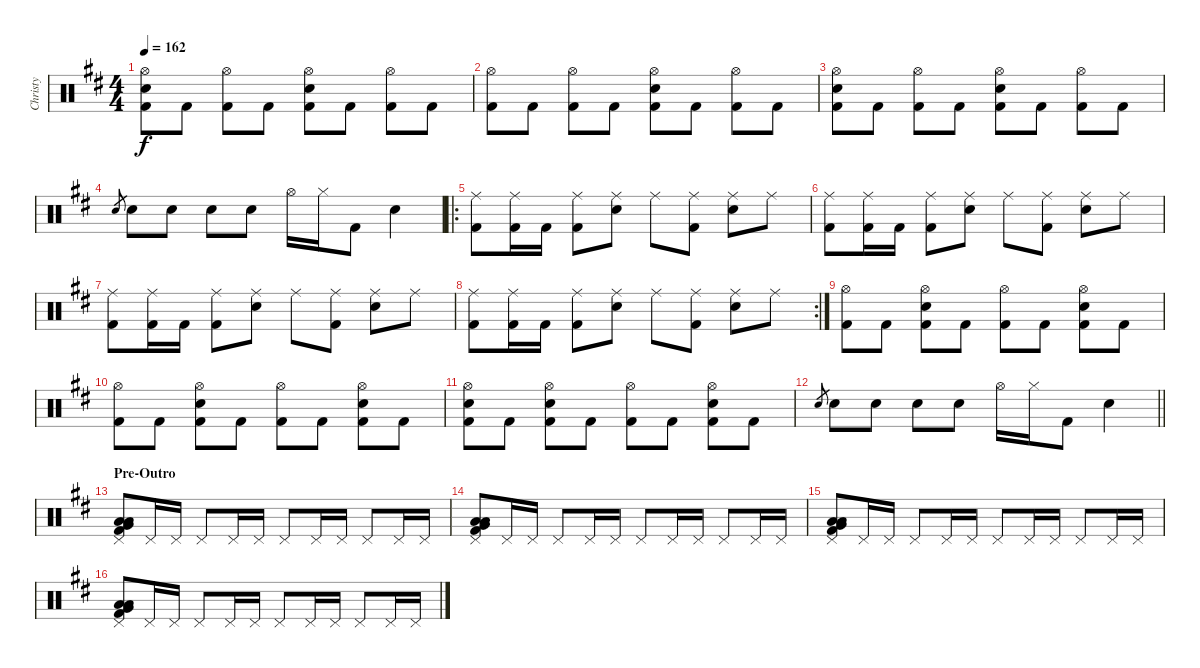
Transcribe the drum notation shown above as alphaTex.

\track ("Christy" "Christy") {instrument percussion}
\staff {score}
\articulation defaults
\ts (4 4)
\tempo 162
\clef neutral
\ks d
("Hi-Hat (open)" "Snare (hit) 2" "Kick (hit) 2").8{dy f} "Kick (hit) 2".8 ("Hi-Hat (open)" "Kick (hit) 2").8 "Kick (hit) 2".8 ("Hi-Hat (open)" "Snare (hit) 2" "Kick (hit) 2").8 "Kick (hit) 2".8 ("Hi-Hat (open)" "Kick (hit) 2").8 "Kick (hit) 2".8 |
("Hi-Hat (open)" "Kick (hit) 2").8 "Kick (hit) 2".8 ("Hi-Hat (open)" "Kick (hit) 2").8 "Kick (hit) 2".8 ("Hi-Hat (open)" "Snare (hit) 2" "Kick (hit) 2").8 "Kick (hit) 2".8 ("Hi-Hat (open)" "Kick (hit) 2").8 "Kick (hit) 2".8 |
("Hi-Hat (open)" "Snare (hit) 2" "Kick (hit) 2").8 "Kick (hit) 2".8 ("Hi-Hat (open)" "Kick (hit) 2").8 "Kick (hit) 2".8 ("Hi-Hat (open)" "Snare (hit) 2" "Kick (hit) 2").8 "Kick (hit) 2".8 ("Hi-Hat (open)" "Kick (hit) 2").8 "Kick (hit) 2".8 |
"Snare (hit) 2".8{gr} "Snare (hit) 2".8 "Snare (hit) 2".8 "Snare (hit) 2".8 "Snare (hit) 2".8 "Hi-Hat (open)".16 "Hi-Hat (closed)".16 "Kick (hit) 2".8 "Snare (hit) 2".4 |
\ro
("Ride (middle)" "Kick (hit) 2").8 ("Ride (middle)" "Kick (hit) 2").16 "Kick (hit) 2".16 ("Ride (middle)" "Kick (hit) 2").8 ("Ride (middle)" "Snare (hit) 2").8 "Ride (middle)".8 ("Ride (middle)" "Kick (hit) 2").8 ("Ride (middle)" "Snare (hit) 2").8 "Ride (middle)".8 |
("Ride (middle)" "Kick (hit) 2").8 ("Ride (middle)" "Kick (hit) 2").16 "Kick (hit) 2".16 ("Ride (middle)" "Kick (hit) 2").8 ("Ride (middle)" "Snare (hit) 2").8 "Ride (middle)".8 ("Ride (middle)" "Kick (hit) 2").8 ("Ride (middle)" "Snare (hit) 2").8 "Ride (middle)".8 |
("Ride (middle)" "Kick (hit) 2").8 ("Ride (middle)" "Kick (hit) 2").16 "Kick (hit) 2".16 ("Ride (middle)" "Kick (hit) 2").8 ("Ride (middle)" "Snare (hit) 2").8 "Ride (middle)".8 ("Ride (middle)" "Kick (hit) 2").8 ("Ride (middle)" "Snare (hit) 2").8 "Ride (middle)".8 |
\rc 2
("Ride (middle)" "Kick (hit) 2").8 ("Ride (middle)" "Kick (hit) 2").16 "Kick (hit) 2".16 ("Ride (middle)" "Kick (hit) 2").8 ("Ride (middle)" "Snare (hit) 2").8 "Ride (middle)".8 ("Ride (middle)" "Kick (hit) 2").8 ("Ride (middle)" "Snare (hit) 2").8 "Ride (middle)".8 |
("Hi-Hat (open)" "Kick (hit) 2").8 "Kick (hit) 2".8 ("Hi-Hat (open)" "Snare (hit) 2" "Kick (hit) 2").8 "Kick (hit) 2".8 ("Hi-Hat (open)" "Kick (hit) 2").8 "Kick (hit) 2".8 ("Hi-Hat (open)" "Snare (hit) 2" "Kick (hit) 2").8 "Kick (hit) 2".8 |
("Hi-Hat (open)" "Kick (hit) 2").8 "Kick (hit) 2".8 ("Hi-Hat (open)" "Snare (hit) 2" "Kick (hit) 2").8 "Kick (hit) 2".8 ("Hi-Hat (open)" "Kick (hit) 2").8 "Kick (hit) 2".8 ("Hi-Hat (open)" "Snare (hit) 2" "Kick (hit) 2").8 "Kick (hit) 2".8 |
("Hi-Hat (open)" "Snare (hit) 2" "Kick (hit) 2").8 "Kick (hit) 2".8 ("Hi-Hat (open)" "Snare (hit) 2" "Kick (hit) 2").8 "Kick (hit) 2".8 ("Hi-Hat (open)" "Kick (hit) 2").8 "Kick (hit) 2".8 ("Hi-Hat (open)" "Snare (hit) 2" "Kick (hit) 2").8 "Kick (hit) 2".8 |
\barLineRight lightlight "Snare (hit) 2".8{gr} "Snare (hit) 2".8 "Snare (hit) 2".8 "Snare (hit) 2".8 "Snare (hit) 2".8 "Hi-Hat (open)".16 "Hi-Hat (closed)".16 "Kick (hit) 2".8 "Snare (hit) 2".4
|
\section ("" "Pre-Outro")
("Pedal Hi-Hat (hit)" "Low Floor Tom (hit)" "Very Low Tom (hit)" "Low Tom (hit)" "Kick (hit) 2").8 "Pedal Hi-Hat (hit)".16 "Pedal Hi-Hat (hit)".16 "Pedal Hi-Hat (hit)".8 "Pedal Hi-Hat (hit)".16 "Pedal Hi-Hat (hit)".16 "Pedal Hi-Hat (hit)".8 "Pedal Hi-Hat (hit)".16 "Pedal Hi-Hat (hit)".16 "Pedal Hi-Hat (hit)".8 "Pedal Hi-Hat (hit)".16 "Pedal Hi-Hat (hit)".16 |
("Pedal Hi-Hat (hit)" "Low Floor Tom (hit)" "Very Low Tom (hit)" "Low Tom (hit)" "Kick (hit) 2").8 "Pedal Hi-Hat (hit)".16 "Pedal Hi-Hat (hit)".16 "Pedal Hi-Hat (hit)".8 "Pedal Hi-Hat (hit)".16 "Pedal Hi-Hat (hit)".16 "Pedal Hi-Hat (hit)".8 "Pedal Hi-Hat (hit)".16 "Pedal Hi-Hat (hit)".16 "Pedal Hi-Hat (hit)".8 "Pedal Hi-Hat (hit)".16 "Pedal Hi-Hat (hit)".16 |
("Pedal Hi-Hat (hit)" "Low Floor Tom (hit)" "Very Low Tom (hit)" "Low Tom (hit)" "Kick (hit) 2").8 "Pedal Hi-Hat (hit)".16 "Pedal Hi-Hat (hit)".16 "Pedal Hi-Hat (hit)".8 "Pedal Hi-Hat (hit)".16 "Pedal Hi-Hat (hit)".16 "Pedal Hi-Hat (hit)".8 "Pedal Hi-Hat (hit)".16 "Pedal Hi-Hat (hit)".16 "Pedal Hi-Hat (hit)".8 "Pedal Hi-Hat (hit)".16 "Pedal Hi-Hat (hit)".16 |
("Pedal Hi-Hat (hit)" "Low Floor Tom (hit)" "Very Low Tom (hit)" "Low Tom (hit)" "Kick (hit) 2").8 "Pedal Hi-Hat (hit)".16 "Pedal Hi-Hat (hit)".16 "Pedal Hi-Hat (hit)".8 "Pedal Hi-Hat (hit)".16 "Pedal Hi-Hat (hit)".16 "Pedal Hi-Hat (hit)".8 "Pedal Hi-Hat (hit)".16 "Pedal Hi-Hat (hit)".16 "Pedal Hi-Hat (hit)".8 "Pedal Hi-Hat (hit)".16 "Pedal Hi-Hat (hit)".16
